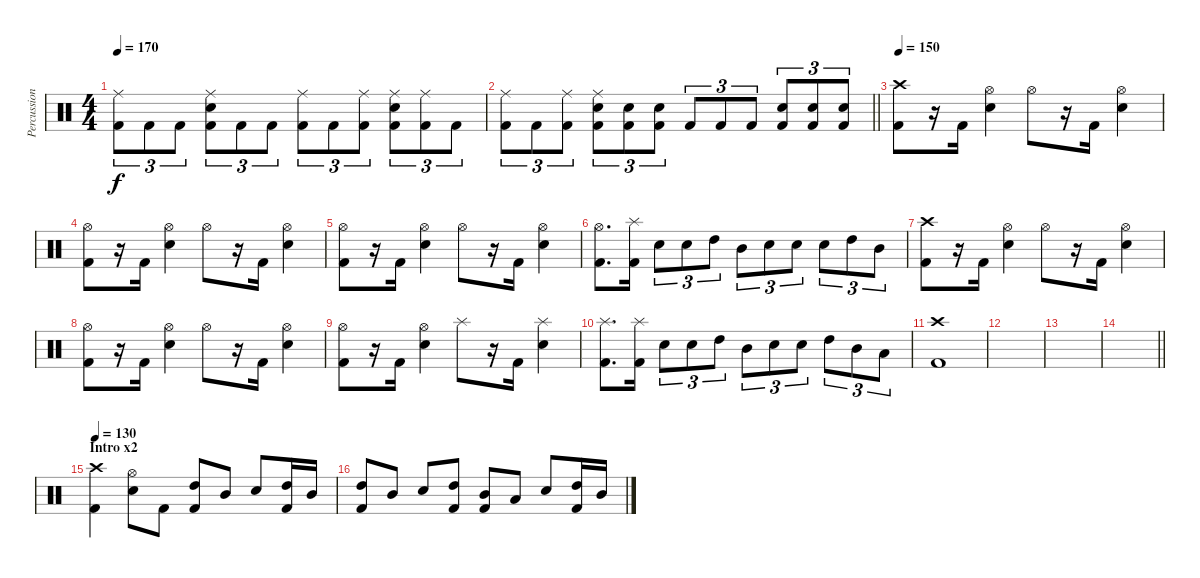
\track ("Percussion" "Percussion") {instrument percussion}
\staff {score}
\articulation defaults
\ts (4 4)
\tempo 170
\clef neutral
\ks c
("Ride (middle)" "Kick (hit) 2").8{tu (3 2) dy f} "Kick (hit) 2".8{tu (3 2)} "Kick (hit) 2".8{tu (3 2)} ("Ride (middle)" "Electric Snare (hit)" "Kick (hit) 2").8{tu (3 2)} "Kick (hit) 2".8{tu (3 2)} "Kick (hit) 2".8{tu (3 2)} ("Ride (middle)" "Kick (hit) 2").8{tu (3 2)} "Kick (hit) 2".8{tu (3 2)} ("Ride (middle)" "Kick (hit) 2").8{tu (3 2)} ("Ride (middle)" "Electric Snare (hit)" "Kick (hit) 2").8{tu (3 2)} ("Ride (middle)" "Kick (hit) 2").8{tu (3 2)} "Kick (hit) 2".8{tu (3 2)} |
\barLineRight lightlight
("Ride (middle)" "Kick (hit) 2").8{tu (3 2)} "Kick (hit) 2".8{tu (3 2)} ("Ride (middle)" "Kick (hit) 2").8{tu (3 2)} ("Ride (middle)" "Electric Snare (hit)" "Kick (hit) 2").8{tu (3 2)} ("Electric Snare (hit)" "Kick (hit) 2").8{tu (3 2)} ("Electric Snare (hit)" "Kick (hit) 2").8{tu (3 2)} "Kick (hit) 2".8{tu (3 2)} "Kick (hit) 2".8{tu (3 2)} "Kick (hit) 2".8{tu (3 2)} ("Electric Snare (hit)" "Kick (hit) 2").8{tu (3 2)} ("Electric Snare (hit)" "Kick (hit) 2").8{tu (3 2)} ("Electric Snare (hit)" "Kick (hit) 2").8{tu (3 2)} |
\section ("" "")
\tempo 150
("Crash high (hit)" "Kick (hit) 2").8 r.16 "Kick (hit) 2".16 ("Hi-Hat (open)" "Electric Snare (hit)").4 "Hi-Hat (open)".8 r.16 "Kick (hit) 2".16 ("Hi-Hat (open)" "Electric Snare (hit)").4 |
("Hi-Hat (open)" "Kick (hit) 2").8 r.16 "Kick (hit) 2".16 ("Hi-Hat (open)" "Electric Snare (hit)").4 "Hi-Hat (open)".8 r.16 "Kick (hit) 2".16 ("Hi-Hat (open)" "Electric Snare (hit)").4 |
("Hi-Hat (open)" "Kick (hit) 2").8 r.16 "Kick (hit) 2".16 ("Hi-Hat (open)" "Electric Snare (hit)").4 "Hi-Hat (open)".8 r.16 "Kick (hit) 2".16 ("Hi-Hat (open)" "Electric Snare (hit)").4 |
("Hi-Hat (open)" "Kick (hit) 2").8{d} ("Splash (hit)" "Kick (hit) 2").16 "Electric Snare (hit)".8{tu (3 2)} "Electric Snare (hit)".8{tu (3 2)} "High Tom (hit)".8{tu (3 2)} "Mid Tom (hit)".8{tu (3 2)} "Electric Snare (hit)".8{tu (3 2)} "Electric Snare (hit)".8{tu (3 2)} "Electric Snare (hit)".8{tu (3 2)} "High Tom (hit)".8{tu (3 2)} "Mid Tom (hit)".8{tu (3 2)} |
("Crash high (hit)" "Kick (hit) 2").8 r.16 "Kick (hit) 2".16 ("Hi-Hat (open)" "Electric Snare (hit)").4 "Hi-Hat (open)".8 r.16 "Kick (hit) 2".16 ("Hi-Hat (open)" "Electric Snare (hit)").4 |
("Hi-Hat (open)" "Kick (hit) 2").8 r.16 "Kick (hit) 2".16 ("Hi-Hat (open)" "Electric Snare (hit)").4 "Hi-Hat (open)".8 r.16 "Kick (hit) 2".16 ("Hi-Hat (open)" "Electric Snare (hit)").4 |
("Hi-Hat (open)" "Kick (hit) 2").8 r.16 "Kick (hit) 2".16 ("Hi-Hat (open)" "Electric Snare (hit)").4 "Splash (hit)".8 r.16 "Kick (hit) 2".16 ("Splash (hit)" "Electric Snare (hit)").4 |
("Splash (hit)" "Kick (hit) 2").8{d} ("Splash (hit)" "Kick (hit) 2").16 "Electric Snare (hit)".8{tu (3 2)} "Electric Snare (hit)".8{tu (3 2)} "High Tom (hit)".8{tu (3 2)} "Mid Tom (hit)".8{tu (3 2)} "Electric Snare (hit)".8{tu (3 2)} "Electric Snare (hit)".8{tu (3 2)} "High Tom (hit)".8{tu (3 2)} "Mid Tom (hit)".8{tu (3 2)} "Low Tom (hit)".8{tu (3 2)} |
("Crash high (hit)" "Kick (hit) 2").1 |
|
|
\barLineRight lightlight
|
\section ("" "Intro x2")
\tempo 130
("Crash high (hit)" "Kick (hit) 2").4 ("Hi-Hat (open)" "Electric Snare (hit)").8 "Kick (hit) 2".8 ("High Tom (hit)" "Kick (hit) 2").8 "Mid Tom (hit)".8 "Electric Snare (hit)".8 ("High Tom (hit)" "Kick (hit) 2").16 "Mid Tom (hit)".16 |
("High Tom (hit)" "Kick (hit) 2").8 "Mid Tom (hit)".8 "Electric Snare (hit)".8 ("High Tom (hit)" "Kick (hit) 2").8 ("Mid Tom (hit)" "Kick (hit) 2").8 "Low Tom (hit)".8 "Electric Snare (hit)".8 ("High Tom (hit)" "Kick (hit) 2").16 "Mid Tom (hit)".16
